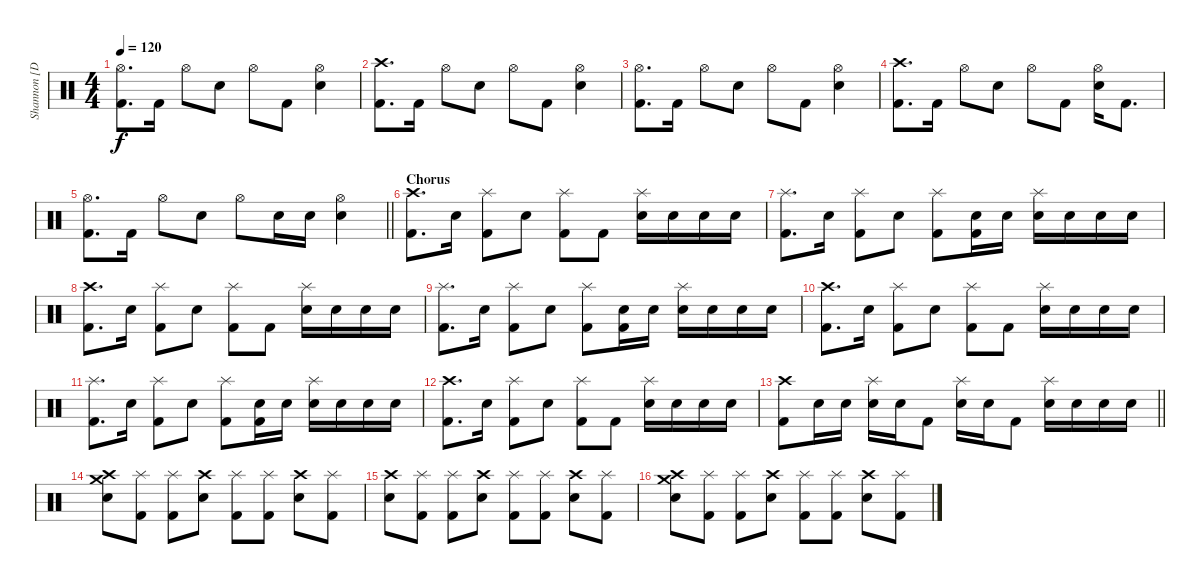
\track ("Shannon [Drums]" "Shannon [D") {instrument percussion}
\staff {score}
\articulation defaults
\ts (4 4)
\tempo 120
\clef neutral
\ks c
("Hi-Hat (open)" "Kick (hit) 2").8{d dy f} "Kick (hit) 2".16 "Hi-Hat (open)".8 "Electric Snare (hit)".8 "Hi-Hat (open)".8 "Kick (hit) 2".8 ("Hi-Hat (open)" "Electric Snare (hit)").4 |
("Crash high (hit)" "Kick (hit) 2").8{d} "Kick (hit) 2".16 "Hi-Hat (open)".8 "Electric Snare (hit)".8 "Hi-Hat (open)".8 "Kick (hit) 2".8 ("Hi-Hat (open)" "Electric Snare (hit)").4 |
("Hi-Hat (open)" "Kick (hit) 2").8{d} "Kick (hit) 2".16 "Hi-Hat (open)".8 "Electric Snare (hit)".8 "Hi-Hat (open)".8 "Kick (hit) 2".8 ("Hi-Hat (open)" "Electric Snare (hit)").4 |
("Crash high (hit)" "Kick (hit) 2").8{d} "Kick (hit) 2".16 "Hi-Hat (open)".8 "Electric Snare (hit)".8 "Hi-Hat (open)".8 "Kick (hit) 2".8 ("Hi-Hat (open)" "Electric Snare (hit)").16 "Kick (hit) 2".8{d} |
\barLineRight lightlight
("Hi-Hat (open)" "Kick (hit) 2").8{d} "Kick (hit) 2".16 "Hi-Hat (open)".8 "Electric Snare (hit)".8 "Hi-Hat (open)".8 "Electric Snare (hit)".16 "Electric Snare (hit)".16 ("Hi-Hat (open)" "Electric Snare (hit)").4 |
\section ("" "Chorus")
("Crash high (hit)" "Kick (hit) 2").8{d} "Electric Snare (hit)".16 ("Splash (hit)" "Kick (hit) 2").8 "Electric Snare (hit)".8 ("Splash (hit)" "Kick (hit) 2").8 "Kick (hit) 2".8 ("Splash (hit)" "Electric Snare (hit)").16 "Electric Snare (hit)".16 "Electric Snare (hit)".16 "Electric Snare (hit)".16 |
("Splash (hit)" "Kick (hit) 2").8{d} "Electric Snare (hit)".16 ("Splash (hit)" "Kick (hit) 2").8 "Electric Snare (hit)".8 ("Splash (hit)" "Kick (hit) 2").8 ("Electric Snare (hit)" "Kick (hit) 2").16 "Electric Snare (hit)".16 ("Splash (hit)" "Electric Snare (hit)").16 "Electric Snare (hit)".16 "Electric Snare (hit)".16 "Electric Snare (hit)".16 |
("Crash high (hit)" "Kick (hit) 2").8{d} "Electric Snare (hit)".16 ("Splash (hit)" "Kick (hit) 2").8 "Electric Snare (hit)".8 ("Splash (hit)" "Kick (hit) 2").8 "Kick (hit) 2".8 ("Splash (hit)" "Electric Snare (hit)").16 "Electric Snare (hit)".16 "Electric Snare (hit)".16 "Electric Snare (hit)".16 |
("Splash (hit)" "Kick (hit) 2").8{d} "Electric Snare (hit)".16 ("Splash (hit)" "Kick (hit) 2").8 "Electric Snare (hit)".8 ("Splash (hit)" "Kick (hit) 2").8 ("Electric Snare (hit)" "Kick (hit) 2").16 "Electric Snare (hit)".16 ("Splash (hit)" "Electric Snare (hit)").16 "Electric Snare (hit)".16 "Electric Snare (hit)".16 "Electric Snare (hit)".16 |
("Crash high (hit)" "Kick (hit) 2").8{d} "Electric Snare (hit)".16 ("Splash (hit)" "Kick (hit) 2").8 "Electric Snare (hit)".8 ("Splash (hit)" "Kick (hit) 2").8 "Kick (hit) 2".8 ("Splash (hit)" "Electric Snare (hit)").16 "Electric Snare (hit)".16 "Electric Snare (hit)".16 "Electric Snare (hit)".16 |
("Splash (hit)" "Kick (hit) 2").8{d} "Electric Snare (hit)".16 ("Splash (hit)" "Kick (hit) 2").8 "Electric Snare (hit)".8 ("Splash (hit)" "Kick (hit) 2").8 ("Electric Snare (hit)" "Kick (hit) 2").16 "Electric Snare (hit)".16 ("Splash (hit)" "Electric Snare (hit)").16 "Electric Snare (hit)".16 "Electric Snare (hit)".16 "Electric Snare (hit)".16 |
("Crash high (hit)" "Kick (hit) 2").8{d} "Electric Snare (hit)".16 ("Splash (hit)" "Kick (hit) 2").8 "Electric Snare (hit)".8 ("Splash (hit)" "Kick (hit) 2").8 "Kick (hit) 2".8 ("Splash (hit)" "Electric Snare (hit)").16 "Electric Snare (hit)".16 "Electric Snare (hit)".16 "Electric Snare (hit)".16 |
\barLineRight lightlight
("Crash high (hit)" "Kick (hit) 2").8 "Electric Snare (hit)".16 "Electric Snare (hit)".16 ("Splash (hit)" "Electric Snare (hit)").16 "Electric Snare (hit)".16 "Kick (hit) 2".8 ("Splash (hit)" "Electric Snare (hit)").16 "Electric Snare (hit)".16 "Kick (hit) 2".8 ("Splash (hit)" "Electric Snare (hit)").16 "Electric Snare (hit)".16 "Electric Snare (hit)".16 "Electric Snare (hit)".16 |
("Crash high (hit)" "Crash medium (hit)" "Electric Snare (hit)").8 ("Splash (hit)" "Kick (hit) 2").8 ("Splash (hit)" "Kick (hit) 2").8 ("Crash high (hit)" "Electric Snare (hit)").8 ("Splash (hit)" "Kick (hit) 2").8 ("Splash (hit)" "Kick (hit) 2").8 ("Crash high (hit)" "Electric Snare (hit)").8 ("Splash (hit)" "Kick (hit) 2").8 |
("Crash high (hit)" "Electric Snare (hit)").8 ("Splash (hit)" "Kick (hit) 2").8 ("Splash (hit)" "Kick (hit) 2").8 ("Crash high (hit)" "Electric Snare (hit)").8 ("Splash (hit)" "Kick (hit) 2").8 ("Splash (hit)" "Kick (hit) 2").8 ("Crash high (hit)" "Electric Snare (hit)").8 ("Splash (hit)" "Kick (hit) 2").8 |
("Crash high (hit)" "Crash medium (hit)" "Electric Snare (hit)").8 ("Splash (hit)" "Kick (hit) 2").8 ("Splash (hit)" "Kick (hit) 2").8 ("Crash high (hit)" "Electric Snare (hit)").8 ("Splash (hit)" "Kick (hit) 2").8 ("Splash (hit)" "Kick (hit) 2").8 ("Crash high (hit)" "Electric Snare (hit)").8 ("Splash (hit)" "Kick (hit) 2").8
